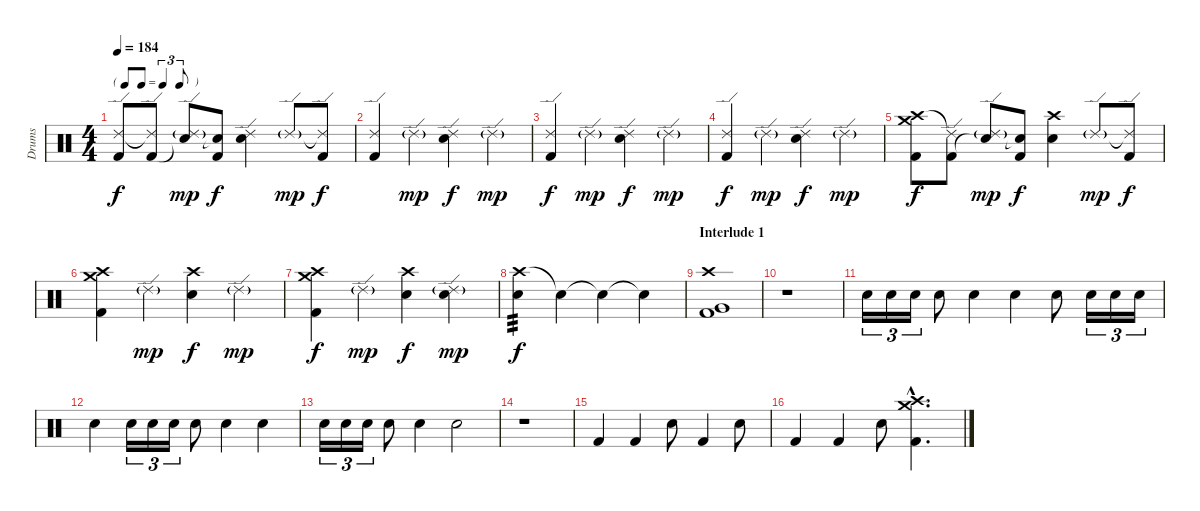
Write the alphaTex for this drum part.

\track ("Drums" "Drums") {instrument percussion}
\staff {score}
\articulation defaults
\ts (4 4)
\tf triplet8th
\tempo 184
\clef neutral
\ks c
("Ride (edge) 2" "Kick (hit) 2").8{dy f} ("Ride (edge) 2"{t} "Kick (hit) 2").8 ("Ride (edge) 2"{g} "Snare (hit)"{t}).8{dy mp} ("Snare (hit)"{t} "Kick (hit) 2").8{dy f} ("Ride (edge) 2" "Electric Snare (hit)").4 "Ride (edge) 2"{g}.8{dy mp} ("Ride (edge) 2"{t} "Kick (hit) 2").8{dy f} |
("Ride (edge) 2" "Kick (hit) 2").4 "Ride (edge) 2"{g}.4{dy mp} ("Ride (edge) 2" "Electric Snare (hit)").4{dy f} "Ride (edge) 2"{g}.4{dy mp} |
("Ride (edge) 2" "Kick (hit) 2").4{dy f} "Ride (edge) 2"{g}.4{dy mp} ("Ride (edge) 2" "Electric Snare (hit)").4{dy f} "Ride (edge) 2"{g}.4{dy mp} |
("Ride (edge) 2" "Kick (hit) 2").4{dy f} "Ride (edge) 2"{g}.4{dy mp} ("Ride (edge) 2" "Electric Snare (hit)").4{dy f} "Ride (edge) 2"{g}.4{dy mp} |
("Crash high (hit)" "Crash medium (hit)" "Kick (hit) 2").8{dy f} ("Ride (edge) 2"{t} "Kick (hit) 2").8 ("Ride (edge) 2"{g} "Snare (hit)"{t}).8{dy mp} ("Snare (hit)"{t} "Kick (hit) 2").8{dy f} ("Crash high (hit)" "Electric Snare (hit)").4 "Ride (edge) 2"{g}.8{dy mp} ("Ride (edge) 2"{t} "Kick (hit) 2").8{dy f} |
("Crash high (hit)" "Crash medium (hit)" "Kick (hit) 2").4 "Ride (edge) 2"{g}.4{dy mp} ("Crash high (hit)" "Electric Snare (hit)").4{dy f} "Ride (edge) 2"{g}.4{dy mp} |
("Crash high (hit)" "Crash medium (hit)" "Kick (hit) 2").4{dy f} "Ride (edge) 2"{g}.4{dy mp} ("Crash high (hit)" "Electric Snare (hit)").4{dy f} ("Ride (edge) 2"{g} "Electric Snare (hit)").4{dy mp} |
("Crash high (hit)" "Electric Snare (hit)").4{tp 3 dy f} "Snare (hit)"{t}.4 "Electric Snare (hit)"{t}.4 "Snare (hit)"{t}.4 |
\section ("" "Interlude 1")
("Crash high (hit)" "Very Low Tom (hit)" "Kick (hit) 2").1 |
r.1 |
"Electric Snare (hit)".16{tu (3 2)} "Electric Snare (hit)".16{tu (3 2)} "Electric Snare (hit)".16{tu (3 2)} "Electric Snare (hit)".8 "Electric Snare (hit)".4 "Electric Snare (hit)".4 "Electric Snare (hit)".8 "Electric Snare (hit)".16{tu (3 2)} "Electric Snare (hit)".16{tu (3 2)} "Electric Snare (hit)".16{tu (3 2)} |
"Electric Snare (hit)".4 "Electric Snare (hit)".16{tu (3 2)} "Electric Snare (hit)".16{tu (3 2)} "Electric Snare (hit)".16{tu (3 2)} "Electric Snare (hit)".8 "Electric Snare (hit)".4 "Electric Snare (hit)".4 |
"Electric Snare (hit)".16{tu (3 2)} "Electric Snare (hit)".16{tu (3 2)} "Electric Snare (hit)".16{tu (3 2)} "Electric Snare (hit)".8 "Electric Snare (hit)".4 "Electric Snare (hit)".2 |
r.1 |
"Kick (hit) 2".4 "Kick (hit) 2".4 "Electric Snare (hit)".8 "Kick (hit) 2".4 "Electric Snare (hit)".8 |
"Kick (hit) 2".4 "Kick (hit) 2".4 "Electric Snare (hit)".8 ("Crash high (hit)"{hac} "Crash medium (hit)"{hac} "Kick (hit) 2"{hac}).4{d}
